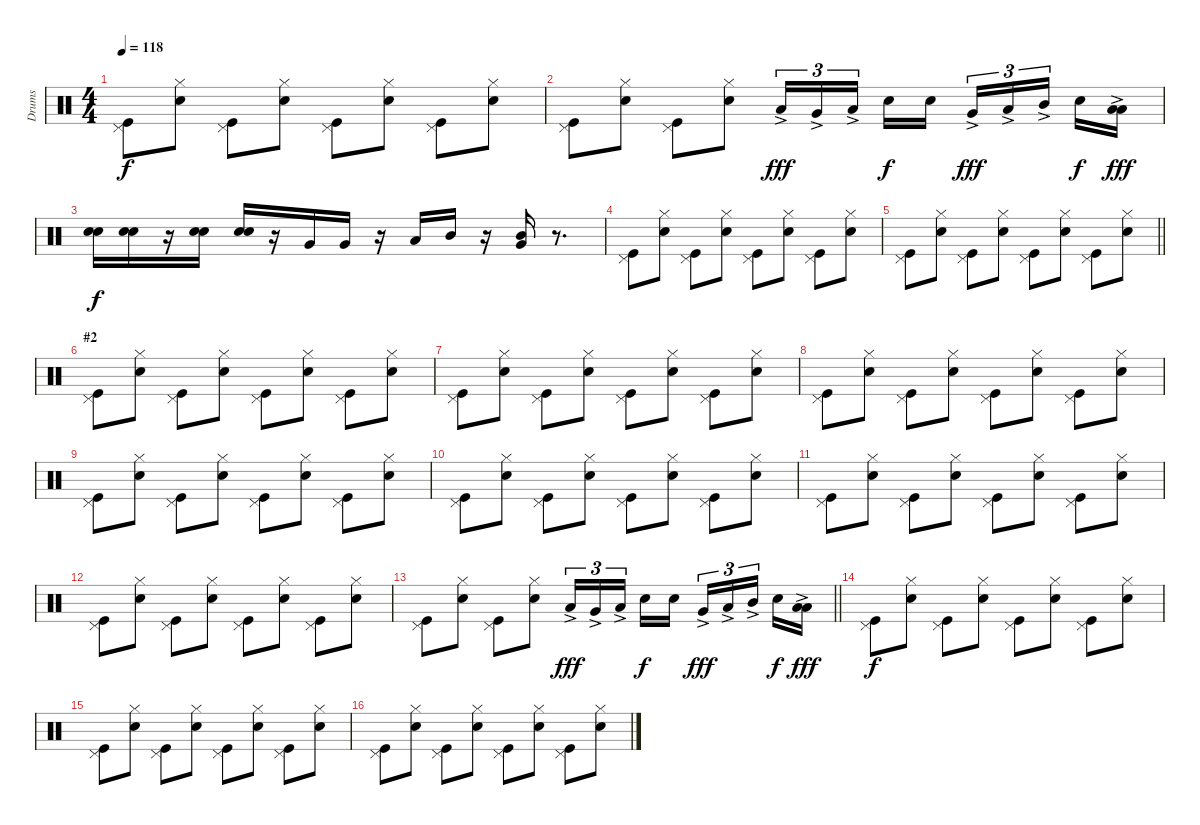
\track ("Drums" "Drums") {instrument percussion}
\staff {score}
\articulation defaults
\ts (4 4)
\tempo 118
\clef neutral
\ks c
("Pedal Hi-Hat (hit)" "Kick (hit)").8{dy f} ("Hi-Hat (closed)" "Electric Snare (hit)").8 ("Pedal Hi-Hat (hit)" "Kick (hit)").8 ("Hi-Hat (closed)" "Electric Snare (hit)").8 ("Pedal Hi-Hat (hit)" "Kick (hit)").8 ("Hi-Hat (closed)" "Electric Snare (hit)").8 ("Pedal Hi-Hat (hit)" "Kick (hit)").8 ("Hi-Hat (closed)" "Electric Snare (hit)").8 |
("Pedal Hi-Hat (hit)" "Kick (hit)").8 ("Hi-Hat (closed)" "Electric Snare (hit)").8 ("Pedal Hi-Hat (hit)" "Kick (hit)").8 ("Hi-Hat (closed)" "Electric Snare (hit)").8 "Low Floor Tom (hit)"{ac}.16{tu (3 2) dy fff} "Very Low Tom (hit)"{ac}.16{tu (3 2)} "Low Tom (hit)"{ac}.16{tu (3 2)} "Electric Snare (hit)".16{dy f} "Electric Snare (hit)".16 "Very Low Tom (hit)"{ac}.16{tu (3 2) dy fff} "Low Tom (hit)"{ac}.16{tu (3 2)} "Mid Tom (hit)"{ac}.16{tu (3 2)} "Electric Snare (hit)".16{dy f} ("Low Floor Tom (hit)" "Low Tom (hit)"{ac}).16{dy fff} |
("Electric Snare (hit)" "Electric Snare (hit)").16{dy f} ("Electric Snare (hit)" "Electric Snare (hit)").16 r.16 ("Electric Snare (hit)" "Electric Snare (hit)").16 ("Electric Snare (hit)" "Electric Snare (hit)").16 r.16 "Very Low Tom (hit)".16 "Very Low Tom (hit)".16 r.16 "Low Tom (hit)".16 "Mid Tom (hit)".16 r.16 ("Very Low Tom (hit)" "Mid Tom (hit)").16 r.8{d} |
("Pedal Hi-Hat (hit)" "Kick (hit)").8 ("Hi-Hat (closed)" "Electric Snare (hit)").8 ("Pedal Hi-Hat (hit)" "Kick (hit)").8 ("Hi-Hat (closed)" "Electric Snare (hit)").8 ("Pedal Hi-Hat (hit)" "Kick (hit)").8 ("Hi-Hat (closed)" "Electric Snare (hit)").8 ("Pedal Hi-Hat (hit)" "Kick (hit)").8 ("Hi-Hat (closed)" "Electric Snare (hit)").8 |
\barLineRight lightlight
("Pedal Hi-Hat (hit)" "Kick (hit)").8 ("Hi-Hat (closed)" "Electric Snare (hit)").8 ("Pedal Hi-Hat (hit)" "Kick (hit)").8 ("Hi-Hat (closed)" "Electric Snare (hit)").8 ("Pedal Hi-Hat (hit)" "Kick (hit)").8 ("Hi-Hat (closed)" "Electric Snare (hit)").8 ("Pedal Hi-Hat (hit)" "Kick (hit)").8 ("Hi-Hat (closed)" "Electric Snare (hit)").8 |
\section ("" "#2")
("Pedal Hi-Hat (hit)" "Kick (hit)").8 ("Hi-Hat (closed)" "Electric Snare (hit)").8 ("Pedal Hi-Hat (hit)" "Kick (hit)").8 ("Hi-Hat (closed)" "Electric Snare (hit)").8 ("Pedal Hi-Hat (hit)" "Kick (hit)").8 ("Hi-Hat (closed)" "Electric Snare (hit)").8 ("Pedal Hi-Hat (hit)" "Kick (hit)").8 ("Hi-Hat (closed)" "Electric Snare (hit)").8 |
("Pedal Hi-Hat (hit)" "Kick (hit)").8 ("Hi-Hat (closed)" "Electric Snare (hit)").8 ("Pedal Hi-Hat (hit)" "Kick (hit)").8 ("Hi-Hat (closed)" "Electric Snare (hit)").8 ("Pedal Hi-Hat (hit)" "Kick (hit)").8 ("Hi-Hat (closed)" "Electric Snare (hit)").8 ("Pedal Hi-Hat (hit)" "Kick (hit)").8 ("Hi-Hat (closed)" "Electric Snare (hit)").8 |
("Pedal Hi-Hat (hit)" "Kick (hit)").8 ("Hi-Hat (closed)" "Electric Snare (hit)").8 ("Pedal Hi-Hat (hit)" "Kick (hit)").8 ("Hi-Hat (closed)" "Electric Snare (hit)").8 ("Pedal Hi-Hat (hit)" "Kick (hit)").8 ("Hi-Hat (closed)" "Electric Snare (hit)").8 ("Pedal Hi-Hat (hit)" "Kick (hit)").8 ("Hi-Hat (closed)" "Electric Snare (hit)").8 |
("Pedal Hi-Hat (hit)" "Kick (hit)").8 ("Hi-Hat (closed)" "Electric Snare (hit)").8 ("Pedal Hi-Hat (hit)" "Kick (hit)").8 ("Hi-Hat (closed)" "Electric Snare (hit)").8 ("Pedal Hi-Hat (hit)" "Kick (hit)").8 ("Hi-Hat (closed)" "Electric Snare (hit)").8 ("Pedal Hi-Hat (hit)" "Kick (hit)").8 ("Hi-Hat (closed)" "Electric Snare (hit)").8 |
("Pedal Hi-Hat (hit)" "Kick (hit)").8 ("Hi-Hat (closed)" "Electric Snare (hit)").8 ("Pedal Hi-Hat (hit)" "Kick (hit)").8 ("Hi-Hat (closed)" "Electric Snare (hit)").8 ("Pedal Hi-Hat (hit)" "Kick (hit)").8 ("Hi-Hat (closed)" "Electric Snare (hit)").8 ("Pedal Hi-Hat (hit)" "Kick (hit)").8 ("Hi-Hat (closed)" "Electric Snare (hit)").8 |
("Pedal Hi-Hat (hit)" "Kick (hit)").8 ("Hi-Hat (closed)" "Electric Snare (hit)").8 ("Pedal Hi-Hat (hit)" "Kick (hit)").8 ("Hi-Hat (closed)" "Electric Snare (hit)").8 ("Pedal Hi-Hat (hit)" "Kick (hit)").8 ("Hi-Hat (closed)" "Electric Snare (hit)").8 ("Pedal Hi-Hat (hit)" "Kick (hit)").8 ("Hi-Hat (closed)" "Electric Snare (hit)").8 |
("Pedal Hi-Hat (hit)" "Kick (hit)").8 ("Hi-Hat (closed)" "Electric Snare (hit)").8 ("Pedal Hi-Hat (hit)" "Kick (hit)").8 ("Hi-Hat (closed)" "Electric Snare (hit)").8 ("Pedal Hi-Hat (hit)" "Kick (hit)").8 ("Hi-Hat (closed)" "Electric Snare (hit)").8 ("Pedal Hi-Hat (hit)" "Kick (hit)").8 ("Hi-Hat (closed)" "Electric Snare (hit)").8 |
\barLineRight lightlight
("Pedal Hi-Hat (hit)" "Kick (hit)").8 ("Hi-Hat (closed)" "Electric Snare (hit)").8 ("Pedal Hi-Hat (hit)" "Kick (hit)").8 ("Hi-Hat (closed)" "Electric Snare (hit)").8 "Low Floor Tom (hit)"{ac}.16{tu (3 2) dy fff} "Very Low Tom (hit)"{ac}.16{tu (3 2)} "Low Tom (hit)"{ac}.16{tu (3 2)} "Electric Snare (hit)".16{dy f} "Electric Snare (hit)".16 "Very Low Tom (hit)"{ac}.16{tu (3 2) dy fff} "Low Tom (hit)"{ac}.16{tu (3 2)} "Mid Tom (hit)"{ac}.16{tu (3 2)} "Electric Snare (hit)".16{dy f} ("Low Floor Tom (hit)" "Low Tom (hit)"{ac}).16{dy fff} |
\section ("" " ")
("Pedal Hi-Hat (hit)" "Kick (hit)").8{dy f} ("Hi-Hat (closed)" "Electric Snare (hit)").8 ("Pedal Hi-Hat (hit)" "Kick (hit)").8 ("Hi-Hat (closed)" "Electric Snare (hit)").8 ("Pedal Hi-Hat (hit)" "Kick (hit)").8 ("Hi-Hat (closed)" "Electric Snare (hit)").8 ("Pedal Hi-Hat (hit)" "Kick (hit)").8 ("Hi-Hat (closed)" "Electric Snare (hit)").8 |
("Pedal Hi-Hat (hit)" "Kick (hit)").8 ("Hi-Hat (closed)" "Electric Snare (hit)").8 ("Pedal Hi-Hat (hit)" "Kick (hit)").8 ("Hi-Hat (closed)" "Electric Snare (hit)").8 ("Pedal Hi-Hat (hit)" "Kick (hit)").8 ("Hi-Hat (closed)" "Electric Snare (hit)").8 ("Pedal Hi-Hat (hit)" "Kick (hit)").8 ("Hi-Hat (closed)" "Electric Snare (hit)").8 |
("Pedal Hi-Hat (hit)" "Kick (hit)").8 ("Hi-Hat (closed)" "Electric Snare (hit)").8 ("Pedal Hi-Hat (hit)" "Kick (hit)").8 ("Hi-Hat (closed)" "Electric Snare (hit)").8 ("Pedal Hi-Hat (hit)" "Kick (hit)").8 ("Hi-Hat (closed)" "Electric Snare (hit)").8 ("Pedal Hi-Hat (hit)" "Kick (hit)").8 ("Hi-Hat (closed)" "Electric Snare (hit)").8
